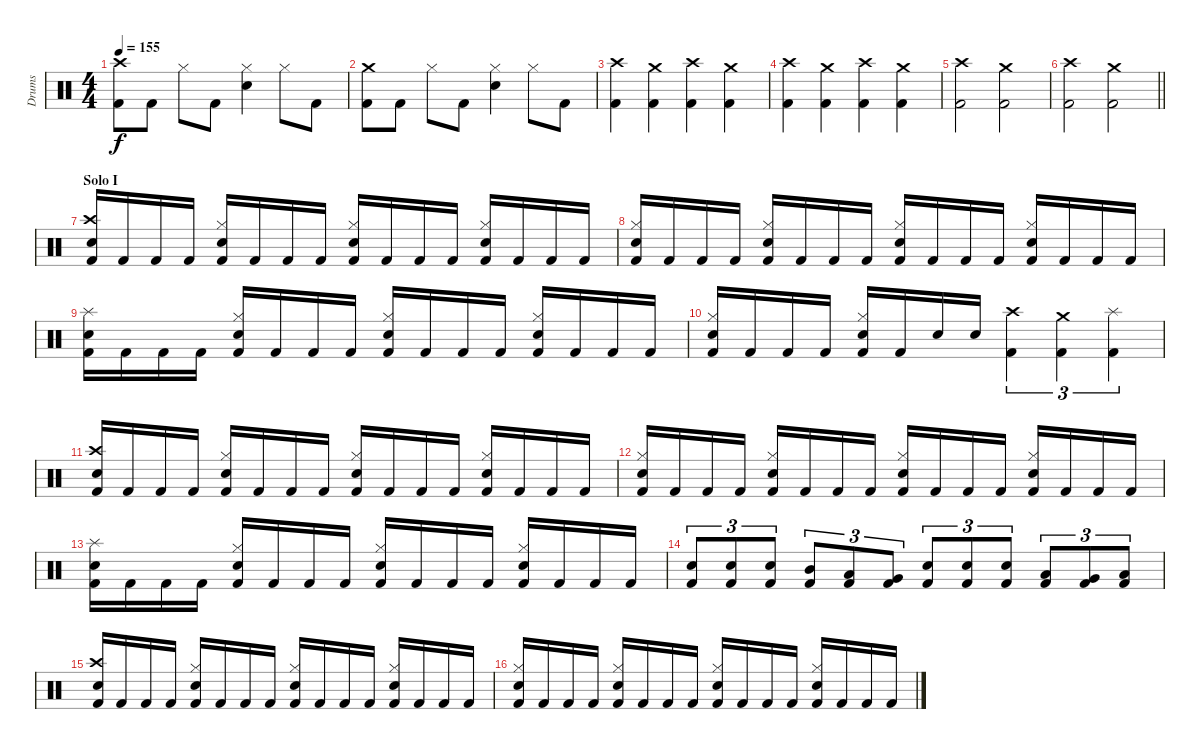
\track ("Drums" "Drums") {instrument percussion}
\staff {score}
\articulation defaults
\ts (4 4)
\tempo 155
\clef neutral
\ks c
("Kick (hit) 2" "Crash high (hit)").8{dy f} "Kick (hit) 2".8 "Hi-Hat (closed)".8 "Kick (hit) 2".8 ("Hi-Hat (closed)" "Electric Snare (hit)").4 "Hi-Hat (closed)".8 "Kick (hit) 2".8 |
("Kick (hit) 2" "Crash medium (hit)").8 "Kick (hit) 2".8 "Hi-Hat (closed)".8 "Kick (hit) 2".8 ("Hi-Hat (closed)" "Electric Snare (hit)").4 "Hi-Hat (closed)".8 "Kick (hit) 2".8 |
("Kick (hit) 2" "Crash high (hit)").4 ("Kick (hit) 2" "Crash medium (hit)").4 ("Kick (hit) 2" "Crash high (hit)").4 ("Kick (hit) 2" "Crash medium (hit)").4 |
("Kick (hit) 2" "Crash high (hit)").4 ("Kick (hit) 2" "Crash medium (hit)").4 ("Kick (hit) 2" "Crash high (hit)").4 ("Kick (hit) 2" "Crash medium (hit)").4 |
("Kick (hit) 2" "Crash high (hit)").2 ("Kick (hit) 2" "Crash medium (hit)").2 |
\barLineRight lightlight
("Kick (hit) 2" "Crash high (hit)").2 ("Kick (hit) 2" "Crash medium (hit)").2 |
\section ("" "Solo I")
("Kick (hit) 2" "Crash high (hit)" "Electric Snare (hit)").16 "Kick (hit) 2".16 "Kick (hit) 2".16 "Kick (hit) 2".16 ("Kick (hit) 2" "Hi-Hat (closed)" "Electric Snare (hit)").16 "Kick (hit) 2".16 "Kick (hit) 2".16 "Kick (hit) 2".16 ("Kick (hit) 2" "Hi-Hat (closed)" "Electric Snare (hit)").16 "Kick (hit) 2".16 "Kick (hit) 2".16 "Kick (hit) 2".16 ("Kick (hit) 2" "Hi-Hat (closed)" "Electric Snare (hit)").16 "Kick (hit) 2".16 "Kick (hit) 2".16 "Kick (hit) 2".16 |
("Kick (hit) 2" "Hi-Hat (closed)" "Electric Snare (hit)").16 "Kick (hit) 2".16 "Kick (hit) 2".16 "Kick (hit) 2".16 ("Kick (hit) 2" "Hi-Hat (closed)" "Electric Snare (hit)").16 "Kick (hit) 2".16 "Kick (hit) 2".16 "Kick (hit) 2".16 ("Kick (hit) 2" "Hi-Hat (closed)" "Electric Snare (hit)").16 "Kick (hit) 2".16 "Kick (hit) 2".16 "Kick (hit) 2".16 ("Kick (hit) 2" "Hi-Hat (closed)" "Electric Snare (hit)").16 "Kick (hit) 2".16 "Kick (hit) 2".16 "Kick (hit) 2".16 |
("Kick (hit) 2" "Splash (hit)" "Electric Snare (hit)").16 "Kick (hit) 2".16 "Kick (hit) 2".16 "Kick (hit) 2".16 ("Kick (hit) 2" "Hi-Hat (closed)" "Electric Snare (hit)").16 "Kick (hit) 2".16 "Kick (hit) 2".16 "Kick (hit) 2".16 ("Kick (hit) 2" "Hi-Hat (closed)" "Electric Snare (hit)").16 "Kick (hit) 2".16 "Kick (hit) 2".16 "Kick (hit) 2".16 ("Kick (hit) 2" "Hi-Hat (closed)" "Electric Snare (hit)").16 "Kick (hit) 2".16 "Kick (hit) 2".16 "Kick (hit) 2".16 |
("Kick (hit) 2" "Hi-Hat (closed)" "Electric Snare (hit)").16 "Kick (hit) 2".16 "Kick (hit) 2".16 "Kick (hit) 2".16 ("Kick (hit) 2" "Hi-Hat (closed)" "Electric Snare (hit)").16 "Kick (hit) 2".16 "Electric Snare (hit)".16 "Electric Snare (hit)".16 ("Kick (hit) 2" "Crash high (hit)").4{tu (3 2)} ("Kick (hit) 2" "Crash medium (hit)").4{tu (3 2)} ("Kick (hit) 2" "Splash (hit)").4{tu (3 2)} |
("Kick (hit) 2" "Crash high (hit)" "Electric Snare (hit)").16 "Kick (hit) 2".16 "Kick (hit) 2".16 "Kick (hit) 2".16 ("Kick (hit) 2" "Hi-Hat (closed)" "Electric Snare (hit)").16 "Kick (hit) 2".16 "Kick (hit) 2".16 "Kick (hit) 2".16 ("Kick (hit) 2" "Hi-Hat (closed)" "Electric Snare (hit)").16 "Kick (hit) 2".16 "Kick (hit) 2".16 "Kick (hit) 2".16 ("Kick (hit) 2" "Hi-Hat (closed)" "Electric Snare (hit)").16 "Kick (hit) 2".16 "Kick (hit) 2".16 "Kick (hit) 2".16 |
("Kick (hit) 2" "Hi-Hat (closed)" "Electric Snare (hit)").16 "Kick (hit) 2".16 "Kick (hit) 2".16 "Kick (hit) 2".16 ("Kick (hit) 2" "Hi-Hat (closed)" "Electric Snare (hit)").16 "Kick (hit) 2".16 "Kick (hit) 2".16 "Kick (hit) 2".16 ("Kick (hit) 2" "Hi-Hat (closed)" "Electric Snare (hit)").16 "Kick (hit) 2".16 "Kick (hit) 2".16 "Kick (hit) 2".16 ("Kick (hit) 2" "Hi-Hat (closed)" "Electric Snare (hit)").16 "Kick (hit) 2".16 "Kick (hit) 2".16 "Kick (hit) 2".16 |
("Kick (hit) 2" "Splash (hit)" "Electric Snare (hit)").16 "Kick (hit) 2".16 "Kick (hit) 2".16 "Kick (hit) 2".16 ("Kick (hit) 2" "Hi-Hat (closed)" "Electric Snare (hit)").16 "Kick (hit) 2".16 "Kick (hit) 2".16 "Kick (hit) 2".16 ("Kick (hit) 2" "Hi-Hat (closed)" "Electric Snare (hit)").16 "Kick (hit) 2".16 "Kick (hit) 2".16 "Kick (hit) 2".16 ("Kick (hit) 2" "Hi-Hat (closed)" "Electric Snare (hit)").16 "Kick (hit) 2".16 "Kick (hit) 2".16 "Kick (hit) 2".16 |
("Kick (hit) 2" "Electric Snare (hit)").8{tu (3 2)} ("Kick (hit) 2" "Electric Snare (hit)").8{tu (3 2)} ("Kick (hit) 2" "Electric Snare (hit)").8{tu (3 2)} ("Kick (hit) 2" "Mid Tom (hit)").8{tu (3 2)} ("Kick (hit) 2" "Low Tom (hit)").8{tu (3 2)} ("Kick (hit) 2" "Very Low Tom (hit)").8{tu (3 2)} ("Kick (hit) 2" "Electric Snare (hit)").8{tu (3 2)} ("Kick (hit) 2" "Electric Snare (hit)").8{tu (3 2)} ("Kick (hit) 2" "Electric Snare (hit)").8{tu (3 2)} ("Kick (hit) 2" "Low Tom (hit)").8{tu (3 2)} ("Kick (hit) 2" "Very Low Tom (hit)").8{tu (3 2)} ("Kick (hit) 2" "Low Floor Tom (hit)").8{tu (3 2)} |
("Kick (hit) 2" "Crash high (hit)" "Electric Snare (hit)").16 "Kick (hit) 2".16 "Kick (hit) 2".16 "Kick (hit) 2".16 ("Kick (hit) 2" "Hi-Hat (closed)" "Electric Snare (hit)").16 "Kick (hit) 2".16 "Kick (hit) 2".16 "Kick (hit) 2".16 ("Kick (hit) 2" "Hi-Hat (closed)" "Electric Snare (hit)").16 "Kick (hit) 2".16 "Kick (hit) 2".16 "Kick (hit) 2".16 ("Kick (hit) 2" "Hi-Hat (closed)" "Electric Snare (hit)").16 "Kick (hit) 2".16 "Kick (hit) 2".16 "Kick (hit) 2".16 |
("Kick (hit) 2" "Hi-Hat (closed)" "Electric Snare (hit)").16 "Kick (hit) 2".16 "Kick (hit) 2".16 "Kick (hit) 2".16 ("Kick (hit) 2" "Hi-Hat (closed)" "Electric Snare (hit)").16 "Kick (hit) 2".16 "Kick (hit) 2".16 "Kick (hit) 2".16 ("Kick (hit) 2" "Hi-Hat (closed)" "Electric Snare (hit)").16 "Kick (hit) 2".16 "Kick (hit) 2".16 "Kick (hit) 2".16 ("Kick (hit) 2" "Hi-Hat (closed)" "Electric Snare (hit)").16 "Kick (hit) 2".16 "Kick (hit) 2".16 "Kick (hit) 2".16
